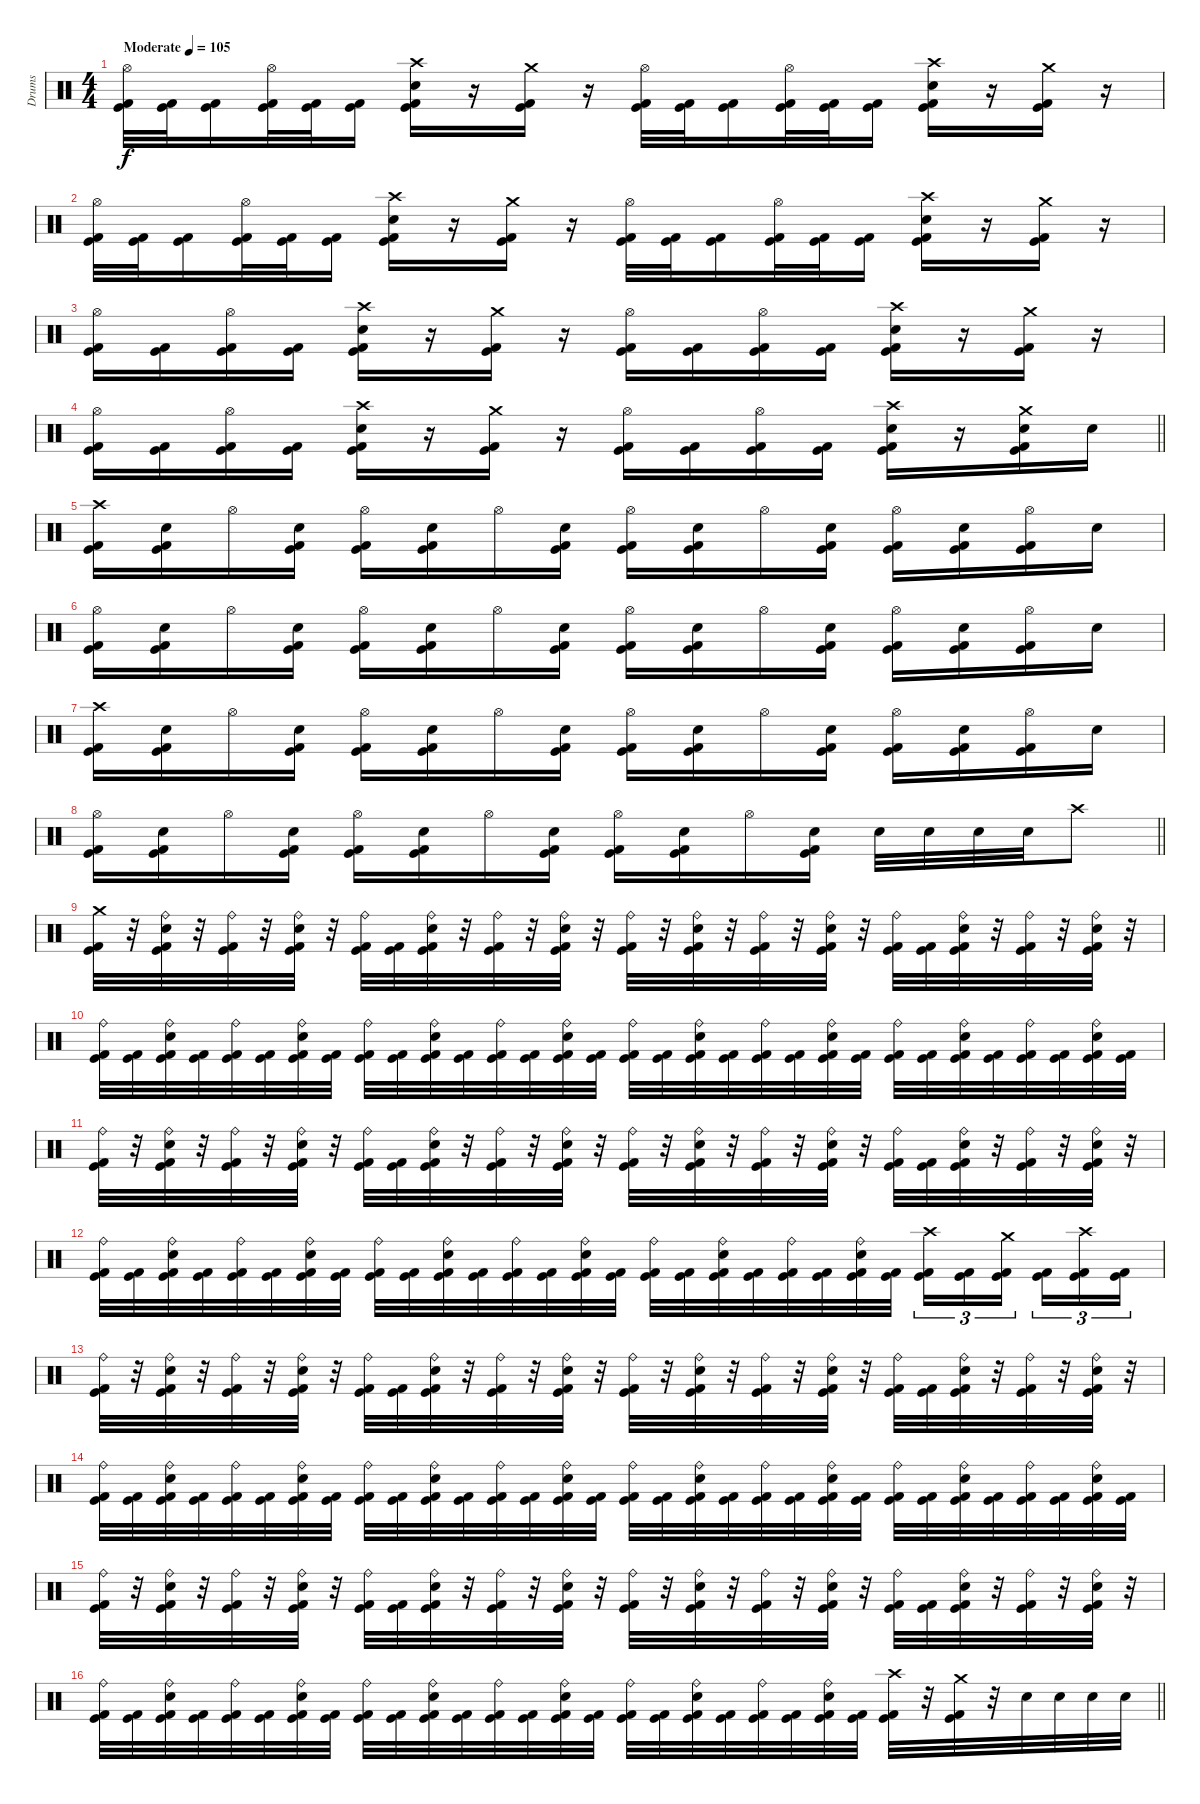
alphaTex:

\track ("Drums" "Drums") {instrument percussion}
\staff {score}
\articulation defaults
\ts (4 4)
\tempo (105 "Moderate")
\clef neutral
\ks c
("Hi-Hat (open)" "Kick (hit)" "Kick (hit) 2").32{dy f} ("Kick (hit)" "Kick (hit) 2").32 ("Kick (hit)" "Kick (hit) 2").16 ("Hi-Hat (open)" "Kick (hit)" "Kick (hit) 2").32 ("Kick (hit)" "Kick (hit) 2").32 ("Kick (hit)" "Kick (hit) 2").16 ("Crash high (hit)" "Electric Snare (hit)" "Kick (hit)" "Kick (hit) 2").16 r.16 ("Crash medium (hit)" "Kick (hit)" "Kick (hit) 2").16 r.16 ("Hi-Hat (open)" "Kick (hit)" "Kick (hit) 2").32 ("Kick (hit)" "Kick (hit) 2").32 ("Kick (hit)" "Kick (hit) 2").16 ("Hi-Hat (open)" "Kick (hit)" "Kick (hit) 2").32 ("Kick (hit)" "Kick (hit) 2").32 ("Kick (hit)" "Kick (hit) 2").16 ("Crash high (hit)" "Electric Snare (hit)" "Kick (hit)" "Kick (hit) 2").16 r.16 ("Crash medium (hit)" "Kick (hit)" "Kick (hit) 2").16 r.16 |
("Hi-Hat (open)" "Kick (hit)" "Kick (hit) 2").32 ("Kick (hit)" "Kick (hit) 2").32 ("Kick (hit)" "Kick (hit) 2").16 ("Hi-Hat (open)" "Kick (hit)" "Kick (hit) 2").32 ("Kick (hit)" "Kick (hit) 2").32 ("Kick (hit)" "Kick (hit) 2").16 ("Crash high (hit)" "Electric Snare (hit)" "Kick (hit)" "Kick (hit) 2").16 r.16 ("Crash medium (hit)" "Kick (hit)" "Kick (hit) 2").16 r.16 ("Hi-Hat (open)" "Kick (hit)" "Kick (hit) 2").32 ("Kick (hit)" "Kick (hit) 2").32 ("Kick (hit)" "Kick (hit) 2").16 ("Hi-Hat (open)" "Kick (hit)" "Kick (hit) 2").32 ("Kick (hit)" "Kick (hit) 2").32 ("Kick (hit)" "Kick (hit) 2").16 ("Crash high (hit)" "Electric Snare (hit)" "Kick (hit)" "Kick (hit) 2").16 r.16 ("Crash medium (hit)" "Kick (hit)" "Kick (hit) 2").16 r.16 |
("Hi-Hat (open)" "Kick (hit)" "Kick (hit) 2").16 ("Kick (hit)" "Kick (hit) 2").16 ("Hi-Hat (open)" "Kick (hit)" "Kick (hit) 2").16 ("Kick (hit)" "Kick (hit) 2").16 ("Crash high (hit)" "Electric Snare (hit)" "Kick (hit)" "Kick (hit) 2").16 r.16 ("Crash medium (hit)" "Kick (hit)" "Kick (hit) 2").16 r.16 ("Hi-Hat (open)" "Kick (hit)" "Kick (hit) 2").16 ("Kick (hit)" "Kick (hit) 2").16 ("Hi-Hat (open)" "Kick (hit)" "Kick (hit) 2").16 ("Kick (hit)" "Kick (hit) 2").16 ("Crash high (hit)" "Electric Snare (hit)" "Kick (hit)" "Kick (hit) 2").16 r.16 ("Crash medium (hit)" "Kick (hit)" "Kick (hit) 2").16 r.16 |
\barLineRight lightlight
("Hi-Hat (open)" "Kick (hit)" "Kick (hit) 2").16 ("Kick (hit)" "Kick (hit) 2").16 ("Hi-Hat (open)" "Kick (hit)" "Kick (hit) 2").16 ("Kick (hit)" "Kick (hit) 2").16 ("Crash high (hit)" "Electric Snare (hit)" "Kick (hit)" "Kick (hit) 2").16 r.16 ("Crash medium (hit)" "Kick (hit)" "Kick (hit) 2").16 r.16 ("Hi-Hat (open)" "Kick (hit)" "Kick (hit) 2").16 ("Kick (hit)" "Kick (hit) 2").16 ("Hi-Hat (open)" "Kick (hit)" "Kick (hit) 2").16 ("Kick (hit)" "Kick (hit) 2").16 ("Crash high (hit)" "Electric Snare (hit)" "Kick (hit)" "Kick (hit) 2").16 r.16 ("Crash medium (hit)" "Electric Snare (hit)" "Kick (hit)" "Kick (hit) 2").16 "Electric Snare (hit)".16 |
("Crash high (hit)" "Kick (hit)" "Kick (hit) 2").16 ("Electric Snare (hit)" "Kick (hit)" "Kick (hit) 2").16 "Hi-Hat (open)".16 ("Electric Snare (hit)" "Kick (hit)" "Kick (hit) 2").16 ("Hi-Hat (open)" "Kick (hit)" "Kick (hit) 2").16 ("Electric Snare (hit)" "Kick (hit)" "Kick (hit) 2").16 "Hi-Hat (open)".16 ("Electric Snare (hit)" "Kick (hit)" "Kick (hit) 2").16 ("Hi-Hat (open)" "Kick (hit)" "Kick (hit) 2").16 ("Electric Snare (hit)" "Kick (hit)" "Kick (hit) 2").16 "Hi-Hat (open)".16 ("Electric Snare (hit)" "Kick (hit)" "Kick (hit) 2").16 ("Hi-Hat (open)" "Kick (hit)" "Kick (hit) 2").16 ("Electric Snare (hit)" "Kick (hit)" "Kick (hit) 2").16 ("Hi-Hat (open)" "Kick (hit)" "Kick (hit) 2").16 "Electric Snare (hit)".16 |
("Hi-Hat (open)" "Kick (hit)" "Kick (hit) 2").16 ("Electric Snare (hit)" "Kick (hit)" "Kick (hit) 2").16 "Hi-Hat (open)".16 ("Electric Snare (hit)" "Kick (hit)" "Kick (hit) 2").16 ("Hi-Hat (open)" "Kick (hit)" "Kick (hit) 2").16 ("Electric Snare (hit)" "Kick (hit)" "Kick (hit) 2").16 "Hi-Hat (open)".16 ("Electric Snare (hit)" "Kick (hit)" "Kick (hit) 2").16 ("Hi-Hat (open)" "Kick (hit)" "Kick (hit) 2").16 ("Electric Snare (hit)" "Kick (hit)" "Kick (hit) 2").16 "Hi-Hat (open)".16 ("Electric Snare (hit)" "Kick (hit)" "Kick (hit) 2").16 ("Hi-Hat (open)" "Kick (hit)" "Kick (hit) 2").16 ("Electric Snare (hit)" "Kick (hit)" "Kick (hit) 2").16 ("Hi-Hat (open)" "Kick (hit)" "Kick (hit) 2").16 "Electric Snare (hit)".16 |
("Crash high (hit)" "Kick (hit)" "Kick (hit) 2").16 ("Electric Snare (hit)" "Kick (hit)" "Kick (hit) 2").16 "Hi-Hat (open)".16 ("Electric Snare (hit)" "Kick (hit)" "Kick (hit) 2").16 ("Hi-Hat (open)" "Kick (hit)" "Kick (hit) 2").16 ("Electric Snare (hit)" "Kick (hit)" "Kick (hit) 2").16 "Hi-Hat (open)".16 ("Electric Snare (hit)" "Kick (hit)" "Kick (hit) 2").16 ("Hi-Hat (open)" "Kick (hit)" "Kick (hit) 2").16 ("Electric Snare (hit)" "Kick (hit)" "Kick (hit) 2").16 "Hi-Hat (open)".16 ("Electric Snare (hit)" "Kick (hit)" "Kick (hit) 2").16 ("Hi-Hat (open)" "Kick (hit)" "Kick (hit) 2").16 ("Electric Snare (hit)" "Kick (hit)" "Kick (hit) 2").16 ("Hi-Hat (open)" "Kick (hit)" "Kick (hit) 2").16 "Electric Snare (hit)".16 |
\barLineRight lightlight
("Hi-Hat (open)" "Kick (hit)" "Kick (hit) 2").16 ("Electric Snare (hit)" "Kick (hit)" "Kick (hit) 2").16 "Hi-Hat (open)".16 ("Electric Snare (hit)" "Kick (hit)" "Kick (hit) 2").16 ("Hi-Hat (open)" "Kick (hit)" "Kick (hit) 2").16 ("Electric Snare (hit)" "Kick (hit)" "Kick (hit) 2").16 "Hi-Hat (open)".16 ("Electric Snare (hit)" "Kick (hit)" "Kick (hit) 2").16 ("Hi-Hat (open)" "Kick (hit)" "Kick (hit) 2").16 ("Electric Snare (hit)" "Kick (hit)" "Kick (hit) 2").16 "Hi-Hat (open)".16 ("Electric Snare (hit)" "Kick (hit)" "Kick (hit) 2").16 "Electric Snare (hit)".32 "Electric Snare (hit)".32 "Electric Snare (hit)".32 "Electric Snare (hit)".32 "Crash high (hit)".8 |
("Crash medium (hit)" "Kick (hit)" "Kick (hit) 2").32 r.32 ("Ride (bell)" "Electric Snare (hit)" "Kick (hit)" "Kick (hit) 2").32 r.32 ("Ride (bell)" "Kick (hit)" "Kick (hit) 2").32 r.32 ("Ride (bell)" "Electric Snare (hit)" "Kick (hit)" "Kick (hit) 2").32 r.32 ("Ride (bell)" "Kick (hit)" "Kick (hit) 2").32 ("Kick (hit)" "Kick (hit) 2").32 ("Ride (bell)" "Electric Snare (hit)" "Kick (hit)" "Kick (hit) 2").32 r.32 ("Ride (bell)" "Kick (hit)" "Kick (hit) 2").32 r.32 ("Ride (bell)" "Electric Snare (hit)" "Kick (hit)" "Kick (hit) 2").32 r.32 ("Ride (bell)" "Kick (hit)" "Kick (hit) 2").32 r.32 ("Ride (bell)" "Electric Snare (hit)" "Kick (hit)" "Kick (hit) 2").32 r.32 ("Ride (bell)" "Kick (hit)" "Kick (hit) 2").32 r.32 ("Ride (bell)" "Electric Snare (hit)" "Kick (hit)" "Kick (hit) 2").32 r.32 ("Ride (bell)" "Kick (hit)" "Kick (hit) 2").32 ("Kick (hit)" "Kick (hit) 2").32 ("Ride (bell)" "Electric Snare (hit)" "Kick (hit)" "Kick (hit) 2").32 r.32 ("Ride (bell)" "Kick (hit)" "Kick (hit) 2").32 r.32 ("Ride (bell)" "Electric Snare (hit)" "Kick (hit)" "Kick (hit) 2").32 r.32 |
("Ride (bell)" "Kick (hit)" "Kick (hit) 2").32 ("Kick (hit)" "Kick (hit) 2").32 ("Ride (bell)" "Electric Snare (hit)" "Kick (hit)" "Kick (hit) 2").32 ("Kick (hit)" "Kick (hit) 2").32 ("Ride (bell)" "Kick (hit)" "Kick (hit) 2").32 ("Kick (hit)" "Kick (hit) 2").32 ("Ride (bell)" "Electric Snare (hit)" "Kick (hit)" "Kick (hit) 2").32 ("Kick (hit)" "Kick (hit) 2").32 ("Ride (bell)" "Kick (hit)" "Kick (hit) 2").32 ("Kick (hit)" "Kick (hit) 2").32 ("Ride (bell)" "Electric Snare (hit)" "Kick (hit)" "Kick (hit) 2").32 ("Kick (hit)" "Kick (hit) 2").32 ("Ride (bell)" "Kick (hit)" "Kick (hit) 2").32 ("Kick (hit)" "Kick (hit) 2").32 ("Ride (bell)" "Electric Snare (hit)" "Kick (hit)" "Kick (hit) 2").32 ("Kick (hit)" "Kick (hit) 2").32 ("Ride (bell)" "Kick (hit)" "Kick (hit) 2").32 ("Kick (hit)" "Kick (hit) 2").32 ("Ride (bell)" "Electric Snare (hit)" "Kick (hit)" "Kick (hit) 2").32 ("Kick (hit)" "Kick (hit) 2").32 ("Ride (bell)" "Kick (hit)" "Kick (hit) 2").32 ("Kick (hit)" "Kick (hit) 2").32 ("Ride (bell)" "Electric Snare (hit)" "Kick (hit)" "Kick (hit) 2").32 ("Kick (hit)" "Kick (hit) 2").32 ("Ride (bell)" "Kick (hit)" "Kick (hit) 2").32 ("Kick (hit)" "Kick (hit) 2").32 ("Ride (bell)" "Electric Snare (hit)" "Kick (hit)" "Kick (hit) 2").32 ("Kick (hit)" "Kick (hit) 2").32 ("Ride (bell)" "Kick (hit)" "Kick (hit) 2").32 ("Kick (hit)" "Kick (hit) 2").32 ("Ride (bell)" "Electric Snare (hit)" "Kick (hit)" "Kick (hit) 2").32 ("Kick (hit)" "Kick (hit) 2").32 |
("Ride (bell)" "Kick (hit)" "Kick (hit) 2").32 r.32 ("Ride (bell)" "Electric Snare (hit)" "Kick (hit)" "Kick (hit) 2").32 r.32 ("Ride (bell)" "Kick (hit)" "Kick (hit) 2").32 r.32 ("Ride (bell)" "Electric Snare (hit)" "Kick (hit)" "Kick (hit) 2").32 r.32 ("Ride (bell)" "Kick (hit)" "Kick (hit) 2").32 ("Kick (hit)" "Kick (hit) 2").32 ("Ride (bell)" "Electric Snare (hit)" "Kick (hit)" "Kick (hit) 2").32 r.32 ("Ride (bell)" "Kick (hit)" "Kick (hit) 2").32 r.32 ("Ride (bell)" "Electric Snare (hit)" "Kick (hit)" "Kick (hit) 2").32 r.32 ("Ride (bell)" "Kick (hit)" "Kick (hit) 2").32 r.32 ("Ride (bell)" "Electric Snare (hit)" "Kick (hit)" "Kick (hit) 2").32 r.32 ("Ride (bell)" "Kick (hit)" "Kick (hit) 2").32 r.32 ("Ride (bell)" "Electric Snare (hit)" "Kick (hit)" "Kick (hit) 2").32 r.32 ("Ride (bell)" "Kick (hit)" "Kick (hit) 2").32 ("Kick (hit)" "Kick (hit) 2").32 ("Ride (bell)" "Electric Snare (hit)" "Kick (hit)" "Kick (hit) 2").32 r.32 ("Ride (bell)" "Kick (hit)" "Kick (hit) 2").32 r.32 ("Ride (bell)" "Electric Snare (hit)" "Kick (hit)" "Kick (hit) 2").32 r.32 |
("Ride (bell)" "Kick (hit)" "Kick (hit) 2").32 ("Kick (hit)" "Kick (hit) 2").32 ("Ride (bell)" "Electric Snare (hit)" "Kick (hit)" "Kick (hit) 2").32 ("Kick (hit)" "Kick (hit) 2").32 ("Ride (bell)" "Kick (hit)" "Kick (hit) 2").32 ("Kick (hit)" "Kick (hit) 2").32 ("Ride (bell)" "Electric Snare (hit)" "Kick (hit)" "Kick (hit) 2").32 ("Kick (hit)" "Kick (hit) 2").32 ("Ride (bell)" "Kick (hit)" "Kick (hit) 2").32 ("Kick (hit)" "Kick (hit) 2").32 ("Ride (bell)" "Electric Snare (hit)" "Kick (hit)" "Kick (hit) 2").32 ("Kick (hit)" "Kick (hit) 2").32 ("Ride (bell)" "Kick (hit)" "Kick (hit) 2").32 ("Kick (hit)" "Kick (hit) 2").32 ("Ride (bell)" "Electric Snare (hit)" "Kick (hit)" "Kick (hit) 2").32 ("Kick (hit)" "Kick (hit) 2").32 ("Ride (bell)" "Kick (hit)" "Kick (hit) 2").32 ("Kick (hit)" "Kick (hit) 2").32 ("Ride (bell)" "Electric Snare (hit)" "Kick (hit)" "Kick (hit) 2").32 ("Kick (hit)" "Kick (hit) 2").32 ("Ride (bell)" "Kick (hit)" "Kick (hit) 2").32 ("Kick (hit)" "Kick (hit) 2").32 ("Ride (bell)" "Electric Snare (hit)" "Kick (hit)" "Kick (hit) 2").32 ("Kick (hit)" "Kick (hit) 2").32 ("Crash high (hit)" "Kick (hit)" "Kick (hit) 2").16{tu (3 2)} ("Kick (hit)" "Kick (hit) 2").16{tu (3 2)} ("Crash medium (hit)" "Kick (hit)" "Kick (hit) 2").16{tu (3 2) beam splitsecondary} ("Kick (hit)" "Kick (hit) 2").16{tu (3 2)} ("Crash high (hit)" "Kick (hit)" "Kick (hit) 2").16{tu (3 2)} ("Kick (hit)" "Kick (hit) 2").16{tu (3 2)} |
("Ride (bell)" "Kick (hit)" "Kick (hit) 2").32 r.32 ("Ride (bell)" "Electric Snare (hit)" "Kick (hit)" "Kick (hit) 2").32 r.32 ("Ride (bell)" "Kick (hit)" "Kick (hit) 2").32 r.32 ("Ride (bell)" "Electric Snare (hit)" "Kick (hit)" "Kick (hit) 2").32 r.32 ("Ride (bell)" "Kick (hit)" "Kick (hit) 2").32 ("Kick (hit)" "Kick (hit) 2").32 ("Ride (bell)" "Electric Snare (hit)" "Kick (hit)" "Kick (hit) 2").32 r.32 ("Ride (bell)" "Kick (hit)" "Kick (hit) 2").32 r.32 ("Ride (bell)" "Electric Snare (hit)" "Kick (hit)" "Kick (hit) 2").32 r.32 ("Ride (bell)" "Kick (hit)" "Kick (hit) 2").32 r.32 ("Ride (bell)" "Electric Snare (hit)" "Kick (hit)" "Kick (hit) 2").32 r.32 ("Ride (bell)" "Kick (hit)" "Kick (hit) 2").32 r.32 ("Ride (bell)" "Electric Snare (hit)" "Kick (hit)" "Kick (hit) 2").32 r.32 ("Ride (bell)" "Kick (hit)" "Kick (hit) 2").32 ("Kick (hit)" "Kick (hit) 2").32 ("Ride (bell)" "Electric Snare (hit)" "Kick (hit)" "Kick (hit) 2").32 r.32 ("Ride (bell)" "Kick (hit)" "Kick (hit) 2").32 r.32 ("Ride (bell)" "Electric Snare (hit)" "Kick (hit)" "Kick (hit) 2").32 r.32 |
("Ride (bell)" "Kick (hit)" "Kick (hit) 2").32 ("Kick (hit)" "Kick (hit) 2").32 ("Ride (bell)" "Electric Snare (hit)" "Kick (hit)" "Kick (hit) 2").32 ("Kick (hit)" "Kick (hit) 2").32 ("Ride (bell)" "Kick (hit)" "Kick (hit) 2").32 ("Kick (hit)" "Kick (hit) 2").32 ("Ride (bell)" "Electric Snare (hit)" "Kick (hit)" "Kick (hit) 2").32 ("Kick (hit)" "Kick (hit) 2").32 ("Ride (bell)" "Kick (hit)" "Kick (hit) 2").32 ("Kick (hit)" "Kick (hit) 2").32 ("Ride (bell)" "Electric Snare (hit)" "Kick (hit)" "Kick (hit) 2").32 ("Kick (hit)" "Kick (hit) 2").32 ("Ride (bell)" "Kick (hit)" "Kick (hit) 2").32 ("Kick (hit)" "Kick (hit) 2").32 ("Ride (bell)" "Electric Snare (hit)" "Kick (hit)" "Kick (hit) 2").32 ("Kick (hit)" "Kick (hit) 2").32 ("Ride (bell)" "Kick (hit)" "Kick (hit) 2").32 ("Kick (hit)" "Kick (hit) 2").32 ("Ride (bell)" "Electric Snare (hit)" "Kick (hit)" "Kick (hit) 2").32 ("Kick (hit)" "Kick (hit) 2").32 ("Ride (bell)" "Kick (hit)" "Kick (hit) 2").32 ("Kick (hit)" "Kick (hit) 2").32 ("Ride (bell)" "Electric Snare (hit)" "Kick (hit)" "Kick (hit) 2").32 ("Kick (hit)" "Kick (hit) 2").32 ("Ride (bell)" "Kick (hit)" "Kick (hit) 2").32 ("Kick (hit)" "Kick (hit) 2").32 ("Ride (bell)" "Electric Snare (hit)" "Kick (hit)" "Kick (hit) 2").32 ("Kick (hit)" "Kick (hit) 2").32 ("Ride (bell)" "Kick (hit)" "Kick (hit) 2").32 ("Kick (hit)" "Kick (hit) 2").32 ("Ride (bell)" "Electric Snare (hit)" "Kick (hit)" "Kick (hit) 2").32 ("Kick (hit)" "Kick (hit) 2").32 |
("Ride (bell)" "Kick (hit)" "Kick (hit) 2").32 r.32 ("Ride (bell)" "Electric Snare (hit)" "Kick (hit)" "Kick (hit) 2").32 r.32 ("Ride (bell)" "Kick (hit)" "Kick (hit) 2").32 r.32 ("Ride (bell)" "Electric Snare (hit)" "Kick (hit)" "Kick (hit) 2").32 r.32 ("Ride (bell)" "Kick (hit)" "Kick (hit) 2").32 ("Kick (hit)" "Kick (hit) 2").32 ("Ride (bell)" "Electric Snare (hit)" "Kick (hit)" "Kick (hit) 2").32 r.32 ("Ride (bell)" "Kick (hit)" "Kick (hit) 2").32 r.32 ("Ride (bell)" "Electric Snare (hit)" "Kick (hit)" "Kick (hit) 2").32 r.32 ("Ride (bell)" "Kick (hit)" "Kick (hit) 2").32 r.32 ("Ride (bell)" "Electric Snare (hit)" "Kick (hit)" "Kick (hit) 2").32 r.32 ("Ride (bell)" "Kick (hit)" "Kick (hit) 2").32 r.32 ("Ride (bell)" "Electric Snare (hit)" "Kick (hit)" "Kick (hit) 2").32 r.32 ("Ride (bell)" "Kick (hit)" "Kick (hit) 2").32 ("Kick (hit)" "Kick (hit) 2").32 ("Ride (bell)" "Electric Snare (hit)" "Kick (hit)" "Kick (hit) 2").32 r.32 ("Ride (bell)" "Kick (hit)" "Kick (hit) 2").32 r.32 ("Ride (bell)" "Electric Snare (hit)" "Kick (hit)" "Kick (hit) 2").32 r.32 |
\barLineRight lightlight
("Ride (bell)" "Kick (hit)" "Kick (hit) 2").32 ("Kick (hit)" "Kick (hit) 2").32 ("Ride (bell)" "Electric Snare (hit)" "Kick (hit)" "Kick (hit) 2").32 ("Kick (hit)" "Kick (hit) 2").32 ("Ride (bell)" "Kick (hit)" "Kick (hit) 2").32 ("Kick (hit)" "Kick (hit) 2").32 ("Ride (bell)" "Electric Snare (hit)" "Kick (hit)" "Kick (hit) 2").32 ("Kick (hit)" "Kick (hit) 2").32 ("Ride (bell)" "Kick (hit)" "Kick (hit) 2").32 ("Kick (hit)" "Kick (hit) 2").32 ("Ride (bell)" "Electric Snare (hit)" "Kick (hit)" "Kick (hit) 2").32 ("Kick (hit)" "Kick (hit) 2").32 ("Ride (bell)" "Kick (hit)" "Kick (hit) 2").32 ("Kick (hit)" "Kick (hit) 2").32 ("Ride (bell)" "Electric Snare (hit)" "Kick (hit)" "Kick (hit) 2").32 ("Kick (hit)" "Kick (hit) 2").32 ("Ride (bell)" "Kick (hit)" "Kick (hit) 2").32 ("Kick (hit)" "Kick (hit) 2").32 ("Ride (bell)" "Electric Snare (hit)" "Kick (hit)" "Kick (hit) 2").32 ("Kick (hit)" "Kick (hit) 2").32 ("Ride (bell)" "Kick (hit)" "Kick (hit) 2").32 ("Kick (hit)" "Kick (hit) 2").32 ("Ride (bell)" "Electric Snare (hit)" "Kick (hit)" "Kick (hit) 2").32 ("Kick (hit)" "Kick (hit) 2").32 ("Crash high (hit)" "Kick (hit)" "Kick (hit) 2").32 r.32 ("Crash medium (hit)" "Kick (hit)" "Kick (hit) 2").32 r.32 "Electric Snare (hit)".32 "Electric Snare (hit)".32 "Electric Snare (hit)".32 "Electric Snare (hit)".32
